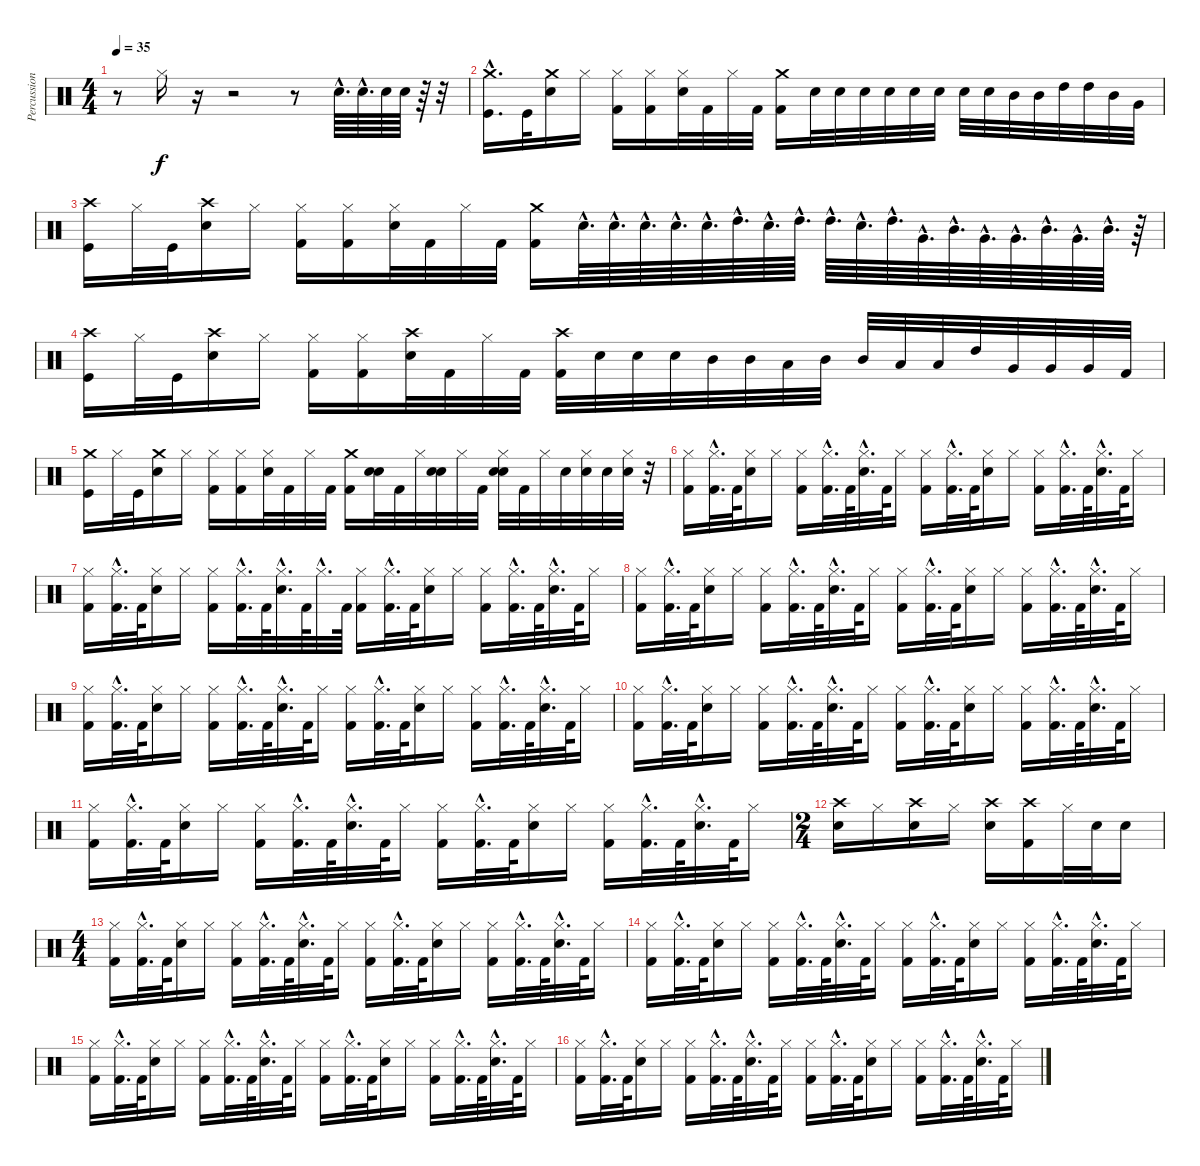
\track ("Percussion" "Percussion") {instrument percussion}
\staff {score}
\articulation defaults
\ts (4 4)
\tempo 35
\clef neutral
\ks c
r.8{dy f} "Hi-Hat (closed)".16 r.16 r.2 r.8 "Snare (hit) 2"{hac}.64{d} "Snare (hit) 2"{hac}.64{d} "Snare (hit) 2".64 "Snare (hit) 2".64 r.64 r.32 |
("Crash medium (hit)"{hac} "Kick (hit)"{hac}).16{d} "Kick (hit)".32 ("Crash medium (hit)" "Snare (hit) 2").16 "Hi-Hat (closed)".16 ("Hi-Hat (closed)" "Kick (hit) 2").16 ("Hi-Hat (closed)" "Kick (hit) 2").16 ("Hi-Hat (closed)" "Snare (hit) 2").32 "Kick (hit) 2".32 "Hi-Hat (closed)".32 "Kick (hit) 2".32 ("Crash medium (hit)" "Kick (hit) 2").16 "Snare (hit) 2".32 "Snare (hit) 2".32 "Snare (hit) 2".32 "Snare (hit) 2".32 "Snare (hit) 2".32 "Snare (hit) 2".32 "Snare (hit) 2".32 "Snare (hit) 2".32 "Mid Tom (hit)".32 "Mid Tom (hit)".32 "High Tom (hit)".32 "High Tom (hit)".32 "Mid Tom (hit)".32 "Very Low Tom (hit)".32 |
("Crash high (hit)" "Kick (hit)").16 "Hi-Hat (closed)".32 "Kick (hit)".32 ("Crash high (hit)" "Snare (hit) 2").16 "Hi-Hat (closed)".16 ("Hi-Hat (closed)" "Kick (hit) 2").16 ("Hi-Hat (closed)" "Kick (hit) 2").16 ("Hi-Hat (closed)" "Snare (hit) 2").32 "Kick (hit) 2".32 "Hi-Hat (closed)".32 "Kick (hit) 2".32 ("Crash medium (hit)" "Kick (hit) 2").16 "Snare (hit) 2"{hac}.64{d} "Snare (hit) 2"{hac}.64{d} "Snare (hit) 2"{hac}.64{d} "Snare (hit) 2"{hac}.64{d} "Snare (hit) 2"{hac}.64{d} "High Tom (hit)"{hac}.64{d} "Snare (hit) 2"{hac}.64{d} "High Tom (hit)"{hac}.64{d} "High Tom (hit)"{hac}.64{d} "Snare (hit) 2"{hac}.64{d} "High Tom (hit)"{hac}.64{d} "Very Low Tom (hit)"{hac}.64{d} "Mid Tom (hit)"{hac}.64{d} "Very Low Tom (hit)"{hac}.64{d} "Very Low Tom (hit)"{hac}.64{d} "Mid Tom (hit)"{hac}.64{d} "Very Low Tom (hit)"{hac}.64{d} "Mid Tom (hit)"{hac}.64{d} r.64 |
("Crash high (hit)" "Kick (hit)").16 "Hi-Hat (closed)".32 "Kick (hit)".32 ("Crash high (hit)" "Snare (hit) 2").16 "Hi-Hat (closed)".16 ("Hi-Hat (closed)" "Kick (hit) 2").16 ("Hi-Hat (closed)" "Kick (hit) 2").16 ("Crash high (hit)" "Snare (hit) 2").32 "Kick (hit) 2".32 "Hi-Hat (closed)".32 "Kick (hit) 2".32 ("Crash high (hit)" "Kick (hit) 2").32 "Snare (hit) 2".32 "Snare (hit) 2".32 "Snare (hit) 2".32 "Mid Tom (hit)".32 "Mid Tom (hit)".32 "Low Tom (hit)".32 "Mid Tom (hit)".32 "Mid Tom (hit)".32 "Low Tom (hit)".32 "Low Tom (hit)".32 "High Tom (hit)".32 "Very Low Tom (hit)".32 "Very Low Tom (hit)".32 "Very Low Tom (hit)".32 "Kick (hit) 2".32 |
("Crash medium (hit)" "Kick (hit)").16 "Hi-Hat (closed)".32 "Kick (hit)".32 ("Crash medium (hit)" "Snare (hit) 2").16 "Hi-Hat (closed)".16 ("Hi-Hat (closed)" "Kick (hit) 2").16 ("Hi-Hat (closed)" "Kick (hit) 2").16 ("Hi-Hat (closed)" "Snare (hit) 2").32 "Kick (hit) 2".32 "Hi-Hat (closed)".32 "Kick (hit) 2".32 ("Crash medium (hit)" "Kick (hit) 2").16 ("Snare (hit) 2" "Electric Snare (hit)").32 "Kick (hit) 2".32 "Hi-Hat (closed)".32 ("Snare (hit) 2" "Electric Snare (hit)").32 "Hi-Hat (closed)".32 "Kick (hit) 2".32 ("Hi-Hat (closed)" "Snare (hit) 2" "Electric Snare (hit)").32 "Kick (hit) 2".32 "Hi-Hat (closed)".32 "Snare (hit) 2".32 ("Hi-Hat (closed)" "Snare (hit) 2").32 "Snare (hit) 2".32 ("Hi-Hat (closed)" "Snare (hit) 2").32 r.32 |
("Hi-Hat (closed)" "Kick (hit) 2").16 ("Hi-Hat (closed)"{hac} "Kick (hit) 2"{hac}).32{d} "Kick (hit) 2".64 ("Hi-Hat (closed)" "Snare (hit) 2").16 "Hi-Hat (closed)".16 ("Hi-Hat (closed)" "Kick (hit) 2").16 ("Hi-Hat (closed)"{hac} "Kick (hit) 2"{hac}).32{d} "Kick (hit) 2".64 ("Hi-Hat (closed)"{hac} "Snare (hit) 2"{hac}).32{d} "Kick (hit) 2".64 "Hi-Hat (closed)".16 ("Hi-Hat (closed)" "Kick (hit) 2").16 ("Hi-Hat (closed)"{hac} "Kick (hit) 2"{hac}).32{d} "Kick (hit) 2".64 ("Hi-Hat (closed)" "Snare (hit) 2").16 "Hi-Hat (closed)".16 ("Hi-Hat (closed)" "Kick (hit) 2").16 ("Hi-Hat (closed)"{hac} "Kick (hit) 2"{hac}).32{d} "Kick (hit) 2".64 ("Hi-Hat (closed)"{hac} "Snare (hit) 2"{hac}).32{d} "Kick (hit) 2".64 "Hi-Hat (closed)".16 |
("Hi-Hat (closed)" "Kick (hit) 2").16 ("Hi-Hat (closed)"{hac} "Kick (hit) 2"{hac}).32{d} "Kick (hit) 2".64 ("Hi-Hat (closed)" "Snare (hit) 2").16 "Hi-Hat (closed)".16 ("Hi-Hat (closed)" "Kick (hit) 2").16 ("Hi-Hat (closed)"{hac} "Kick (hit) 2"{hac}).32{d} "Kick (hit) 2".64 ("Hi-Hat (closed)"{hac} "Snare (hit) 2"{hac}).32{d} "Kick (hit) 2".64 "Hi-Hat (closed)"{hac}.32{d} "Kick (hit) 2".64 ("Hi-Hat (closed)" "Kick (hit) 2").16 ("Hi-Hat (closed)"{hac} "Kick (hit) 2"{hac}).32{d} "Kick (hit) 2".64 ("Hi-Hat (closed)" "Snare (hit) 2").16 "Hi-Hat (closed)".16 ("Hi-Hat (closed)" "Kick (hit) 2").16 ("Hi-Hat (closed)"{hac} "Kick (hit) 2"{hac}).32{d} "Kick (hit) 2".64 ("Hi-Hat (closed)"{hac} "Snare (hit) 2"{hac}).32{d} "Kick (hit) 2".64 "Hi-Hat (closed)".16 |
("Hi-Hat (closed)" "Kick (hit) 2").16 ("Hi-Hat (closed)"{hac} "Kick (hit) 2"{hac}).32{d} "Kick (hit) 2".64 ("Hi-Hat (closed)" "Snare (hit) 2").16 "Hi-Hat (closed)".16 ("Hi-Hat (closed)" "Kick (hit) 2").16 ("Hi-Hat (closed)"{hac} "Kick (hit) 2"{hac}).32{d} "Kick (hit) 2".64 ("Hi-Hat (closed)"{hac} "Snare (hit) 2"{hac}).32{d} "Kick (hit) 2".64 "Hi-Hat (closed)".16 ("Hi-Hat (closed)" "Kick (hit) 2").16 ("Hi-Hat (closed)"{hac} "Kick (hit) 2"{hac}).32{d} "Kick (hit) 2".64 ("Hi-Hat (closed)" "Snare (hit) 2").16 "Hi-Hat (closed)".16 ("Hi-Hat (closed)" "Kick (hit) 2").16 ("Hi-Hat (closed)"{hac} "Kick (hit) 2"{hac}).32{d} "Kick (hit) 2".64 ("Hi-Hat (closed)"{hac} "Snare (hit) 2"{hac}).32{d} "Kick (hit) 2".64 "Hi-Hat (closed)".16 |
("Hi-Hat (closed)" "Kick (hit) 2").16 ("Hi-Hat (closed)"{hac} "Kick (hit) 2"{hac}).32{d} "Kick (hit) 2".64 ("Hi-Hat (closed)" "Snare (hit) 2").16 "Hi-Hat (closed)".16 ("Hi-Hat (closed)" "Kick (hit) 2").16 ("Hi-Hat (closed)"{hac} "Kick (hit) 2"{hac}).32{d} "Kick (hit) 2".64 ("Hi-Hat (closed)"{hac} "Snare (hit) 2"{hac}).32{d} "Kick (hit) 2".64 "Hi-Hat (closed)".16 ("Hi-Hat (closed)" "Kick (hit) 2").16 ("Hi-Hat (closed)"{hac} "Kick (hit) 2"{hac}).32{d} "Kick (hit) 2".64 ("Hi-Hat (closed)" "Snare (hit) 2").16 "Hi-Hat (closed)".16 ("Hi-Hat (closed)" "Kick (hit) 2").16 ("Hi-Hat (closed)"{hac} "Kick (hit) 2"{hac}).32{d} "Kick (hit) 2".64 ("Hi-Hat (closed)"{hac} "Snare (hit) 2"{hac}).32{d} "Kick (hit) 2".64 "Hi-Hat (closed)".16 |
("Hi-Hat (closed)" "Kick (hit) 2").16 ("Hi-Hat (closed)"{hac} "Kick (hit) 2"{hac}).32{d} "Kick (hit) 2".64 ("Hi-Hat (closed)" "Snare (hit) 2").16 "Hi-Hat (closed)".16 ("Hi-Hat (closed)" "Kick (hit) 2").16 ("Hi-Hat (closed)"{hac} "Kick (hit) 2"{hac}).32{d} "Kick (hit) 2".64 ("Hi-Hat (closed)"{hac} "Snare (hit) 2"{hac}).32{d} "Kick (hit) 2".64 "Hi-Hat (closed)".16 ("Hi-Hat (closed)" "Kick (hit) 2").16 ("Hi-Hat (closed)"{hac} "Kick (hit) 2"{hac}).32{d} "Kick (hit) 2".64 ("Hi-Hat (closed)" "Snare (hit) 2").16 "Hi-Hat (closed)".16 ("Hi-Hat (closed)" "Kick (hit) 2").16 ("Hi-Hat (closed)"{hac} "Kick (hit) 2"{hac}).32{d} "Kick (hit) 2".64 ("Hi-Hat (closed)"{hac} "Snare (hit) 2"{hac}).32{d} "Kick (hit) 2".64 "Hi-Hat (closed)".16 |
("Hi-Hat (closed)" "Kick (hit) 2").16 ("Hi-Hat (closed)"{hac} "Kick (hit) 2"{hac}).32{d} "Kick (hit) 2".64 ("Hi-Hat (closed)" "Snare (hit) 2").16 "Hi-Hat (closed)".16 ("Hi-Hat (closed)" "Kick (hit) 2").16 ("Hi-Hat (closed)"{hac} "Kick (hit) 2"{hac}).32{d} "Kick (hit) 2".64 ("Hi-Hat (closed)"{hac} "Snare (hit) 2"{hac}).32{d} "Kick (hit) 2".64 "Hi-Hat (closed)".16 ("Hi-Hat (closed)" "Kick (hit) 2").16 ("Hi-Hat (closed)"{hac} "Kick (hit) 2"{hac}).32{d} "Kick (hit) 2".64 ("Hi-Hat (closed)" "Snare (hit) 2").16 "Hi-Hat (closed)".16 ("Hi-Hat (closed)" "Kick (hit) 2").16 ("Hi-Hat (closed)"{hac} "Kick (hit) 2"{hac}).32{d} "Kick (hit) 2".64 ("Hi-Hat (closed)"{hac} "Snare (hit) 2"{hac}).32{d} "Kick (hit) 2".64 "Hi-Hat (closed)".16 |
\ts (2 4)
("Crash high (hit)" "Snare (hit) 2").16 "Hi-Hat (closed)".16 ("Crash high (hit)" "Snare (hit) 2").16 "Hi-Hat (closed)".16 ("Crash high (hit)" "Snare (hit) 2").16 ("Crash high (hit)" "Kick (hit) 2").16 "Hi-Hat (closed)".32 "Snare (hit) 2".32 "Snare (hit) 2".16 |
\ts (4 4)
("Hi-Hat (closed)" "Kick (hit) 2").16 ("Hi-Hat (closed)"{hac} "Kick (hit) 2"{hac}).32{d} "Kick (hit) 2".64 ("Hi-Hat (closed)" "Snare (hit) 2").16 "Hi-Hat (closed)".16 ("Hi-Hat (closed)" "Kick (hit) 2").16 ("Hi-Hat (closed)"{hac} "Kick (hit) 2"{hac}).32{d} "Kick (hit) 2".64 ("Hi-Hat (closed)"{hac} "Snare (hit) 2"{hac}).32{d} "Kick (hit) 2".64 "Hi-Hat (closed)".16 ("Hi-Hat (closed)" "Kick (hit) 2").16 ("Hi-Hat (closed)"{hac} "Kick (hit) 2"{hac}).32{d} "Kick (hit) 2".64 ("Hi-Hat (closed)" "Snare (hit) 2").16 "Hi-Hat (closed)".16 ("Hi-Hat (closed)" "Kick (hit) 2").16 ("Hi-Hat (closed)"{hac} "Kick (hit) 2"{hac}).32{d} "Kick (hit) 2".64 ("Hi-Hat (closed)"{hac} "Snare (hit) 2"{hac}).32{d} "Kick (hit) 2".64 "Hi-Hat (closed)".16 |
("Hi-Hat (closed)" "Kick (hit) 2").16 ("Hi-Hat (closed)"{hac} "Kick (hit) 2"{hac}).32{d} "Kick (hit) 2".64 ("Hi-Hat (closed)" "Snare (hit) 2").16 "Hi-Hat (closed)".16 ("Hi-Hat (closed)" "Kick (hit) 2").16 ("Hi-Hat (closed)"{hac} "Kick (hit) 2"{hac}).32{d} "Kick (hit) 2".64 ("Hi-Hat (closed)"{hac} "Snare (hit) 2"{hac}).32{d} "Kick (hit) 2".64 "Hi-Hat (closed)".16 ("Hi-Hat (closed)" "Kick (hit) 2").16 ("Hi-Hat (closed)"{hac} "Kick (hit) 2"{hac}).32{d} "Kick (hit) 2".64 ("Hi-Hat (closed)" "Snare (hit) 2").16 "Hi-Hat (closed)".16 ("Hi-Hat (closed)" "Kick (hit) 2").16 ("Hi-Hat (closed)"{hac} "Kick (hit) 2"{hac}).32{d} "Kick (hit) 2".64 ("Hi-Hat (closed)"{hac} "Snare (hit) 2"{hac}).32{d} "Kick (hit) 2".64 "Hi-Hat (closed)".16 |
("Hi-Hat (closed)" "Kick (hit) 2").16 ("Hi-Hat (closed)"{hac} "Kick (hit) 2"{hac}).32{d} "Kick (hit) 2".64 ("Hi-Hat (closed)" "Snare (hit) 2").16 "Hi-Hat (closed)".16 ("Hi-Hat (closed)" "Kick (hit) 2").16 ("Hi-Hat (closed)"{hac} "Kick (hit) 2"{hac}).32{d} "Kick (hit) 2".64 ("Hi-Hat (closed)"{hac} "Snare (hit) 2"{hac}).32{d} "Kick (hit) 2".64 "Hi-Hat (closed)".16 ("Hi-Hat (closed)" "Kick (hit) 2").16 ("Hi-Hat (closed)"{hac} "Kick (hit) 2"{hac}).32{d} "Kick (hit) 2".64 ("Hi-Hat (closed)" "Snare (hit) 2").16 "Hi-Hat (closed)".16 ("Hi-Hat (closed)" "Kick (hit) 2").16 ("Hi-Hat (closed)"{hac} "Kick (hit) 2"{hac}).32{d} "Kick (hit) 2".64 ("Hi-Hat (closed)"{hac} "Snare (hit) 2"{hac}).32{d} "Kick (hit) 2".64 "Hi-Hat (closed)".16 |
("Hi-Hat (closed)" "Kick (hit) 2").16 ("Hi-Hat (closed)"{hac} "Kick (hit) 2"{hac}).32{d} "Kick (hit) 2".64 ("Hi-Hat (closed)" "Snare (hit) 2").16 "Hi-Hat (closed)".16 ("Hi-Hat (closed)" "Kick (hit) 2").16 ("Hi-Hat (closed)"{hac} "Kick (hit) 2"{hac}).32{d} "Kick (hit) 2".64 ("Hi-Hat (closed)"{hac} "Snare (hit) 2"{hac}).32{d} "Kick (hit) 2".64 "Hi-Hat (closed)".16 ("Hi-Hat (closed)" "Kick (hit) 2").16 ("Hi-Hat (closed)"{hac} "Kick (hit) 2"{hac}).32{d} "Kick (hit) 2".64 ("Hi-Hat (closed)" "Snare (hit) 2").16 "Hi-Hat (closed)".16 ("Hi-Hat (closed)" "Kick (hit) 2").16 ("Hi-Hat (closed)"{hac} "Kick (hit) 2"{hac}).32{d} "Kick (hit) 2".64 ("Hi-Hat (closed)"{hac} "Snare (hit) 2"{hac}).32{d} "Kick (hit) 2".64 "Hi-Hat (closed)".16
